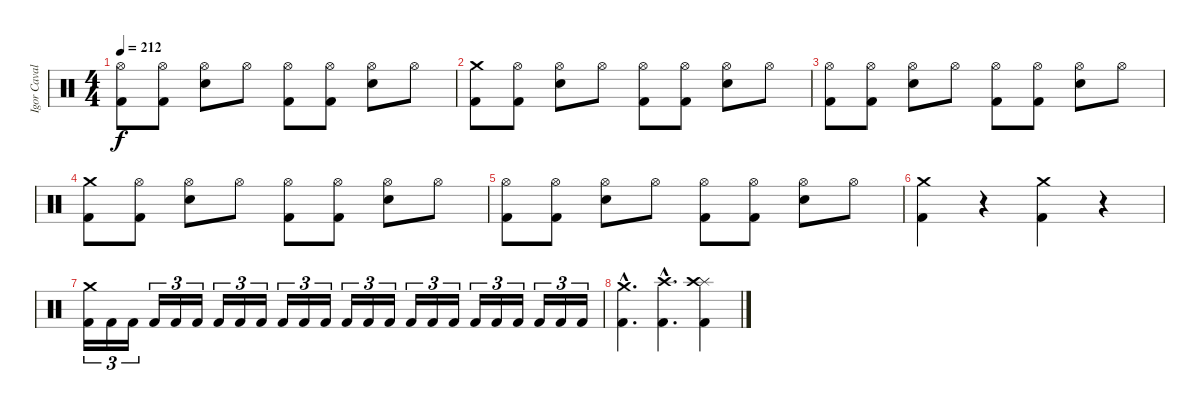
\track ("Igor Cavalera" "Igor Caval") {instrument percussion}
\staff {score}
\articulation defaults
\ts (4 4)
\tempo 212
\clef neutral
\ks c
("Kick (hit) 2" "Hi-Hat (open)").8{dy f} ("Kick (hit) 2" "Hi-Hat (open)").8 ("Snare (hit) 2" "Hi-Hat (open)").8 "Hi-Hat (open)".8 ("Kick (hit) 2" "Hi-Hat (open)").8 ("Kick (hit) 2" "Hi-Hat (open)").8 ("Snare (hit) 2" "Hi-Hat (open)").8 "Hi-Hat (open)".8 |
("Kick (hit) 2" "Crash medium (hit)").8 ("Kick (hit) 2" "Hi-Hat (open)").8 ("Snare (hit) 2" "Hi-Hat (open)").8 "Hi-Hat (open)".8 ("Kick (hit) 2" "Hi-Hat (open)").8 ("Kick (hit) 2" "Hi-Hat (open)").8 ("Snare (hit) 2" "Hi-Hat (open)").8 "Hi-Hat (open)".8 |
("Kick (hit) 2" "Hi-Hat (open)").8 ("Kick (hit) 2" "Hi-Hat (open)").8 ("Snare (hit) 2" "Hi-Hat (open)").8 "Hi-Hat (open)".8 ("Kick (hit) 2" "Hi-Hat (open)").8 ("Kick (hit) 2" "Hi-Hat (open)").8 ("Snare (hit) 2" "Hi-Hat (open)").8 "Hi-Hat (open)".8 |
("Kick (hit) 2" "Crash medium (hit)").8 ("Kick (hit) 2" "Hi-Hat (open)").8 ("Snare (hit) 2" "Hi-Hat (open)").8 "Hi-Hat (open)".8 ("Kick (hit) 2" "Hi-Hat (open)").8 ("Kick (hit) 2" "Hi-Hat (open)").8 ("Snare (hit) 2" "Hi-Hat (open)").8 "Hi-Hat (open)".8 |
("Kick (hit) 2" "Hi-Hat (open)").8 ("Kick (hit) 2" "Hi-Hat (open)").8 ("Snare (hit) 2" "Hi-Hat (open)").8 "Hi-Hat (open)".8 ("Kick (hit) 2" "Hi-Hat (open)").8 ("Kick (hit) 2" "Hi-Hat (open)").8 ("Snare (hit) 2" "Hi-Hat (open)").8 "Hi-Hat (open)".8 |
("Kick (hit) 2" "Crash medium (hit)").4 r.4 ("Kick (hit) 2" "Crash medium (hit)").4 r.4 |
("Crash medium (hit)" "Kick (hit) 2").16{tu (3 2)} "Kick (hit) 2".16{tu (3 2)} "Kick (hit) 2".16{tu (3 2)} "Kick (hit) 2".16{tu (3 2)} "Kick (hit) 2".16{tu (3 2)} "Kick (hit) 2".16{tu (3 2)} "Kick (hit) 2".16{tu (3 2)} "Kick (hit) 2".16{tu (3 2)} "Kick (hit) 2".16{tu (3 2)} "Kick (hit) 2".16{tu (3 2)} "Kick (hit) 2".16{tu (3 2)} "Kick (hit) 2".16{tu (3 2)} "Kick (hit) 2".16{tu (3 2)} "Kick (hit) 2".16{tu (3 2)} "Kick (hit) 2".16{tu (3 2)} "Kick (hit) 2".16{tu (3 2)} "Kick (hit) 2".16{tu (3 2)} "Kick (hit) 2".16{tu (3 2)} "Kick (hit) 2".16{tu (3 2)} "Kick (hit) 2".16{tu (3 2)} "Kick (hit) 2".16{tu (3 2)} "Kick (hit) 2".16{tu (3 2)} "Kick (hit) 2".16{tu (3 2)} "Kick (hit) 2".16{tu (3 2)} |
("Crash medium (hit)"{hac} "Kick (hit) 2"{hac}).4{d} ("Crash high (hit)"{hac} "Kick (hit) 2"{hac}).4{d} ("Splash (hit)" "Crash high (hit)" "Kick (hit) 2").4
